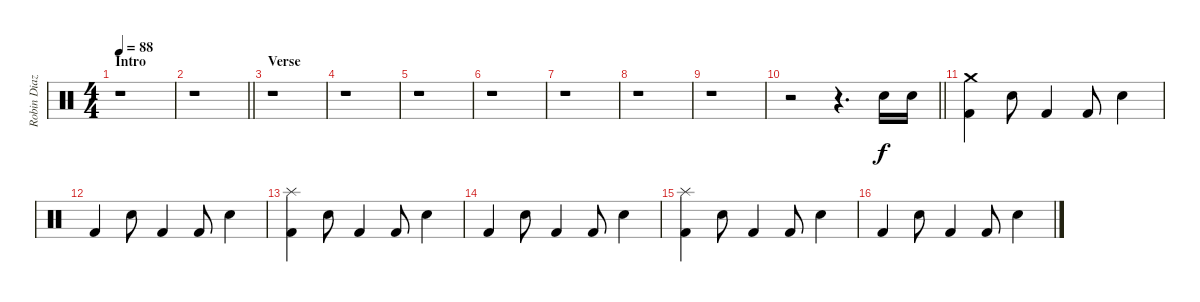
\track ("Robin Diaz (Drums)" "Robin Diaz") {instrument percussion}
\staff {score}
\articulation defaults
\ts (4 4)
\section ("" "Intro")
\tempo 88
\clef neutral
\ks c
r.1{dy f} |
\barLineRight lightlight
r.1 |
\section ("" "Verse")
r.1 |
r.1 |
r.1 |
r.1 |
r.1 |
r.1 |
r.1 |
\barLineRight lightlight
r.2 r.4{d} "Electric Snare (hit)".16 "Electric Snare (hit)".16 |
("Crash medium (hit)" "Kick (hit) 2").4 "Electric Snare (hit)".8 "Kick (hit) 2".4 "Kick (hit) 2".8 "Electric Snare (hit)".4 |
"Kick (hit) 2".4 "Electric Snare (hit)".8 "Kick (hit) 2".4 "Kick (hit) 2".8 "Electric Snare (hit)".4 |
("Splash (hit)" "Kick (hit) 2").4 "Electric Snare (hit)".8 "Kick (hit) 2".4 "Kick (hit) 2".8 "Electric Snare (hit)".4 |
"Kick (hit) 2".4 "Electric Snare (hit)".8 "Kick (hit) 2".4 "Kick (hit) 2".8 "Electric Snare (hit)".4 |
("Splash (hit)" "Kick (hit) 2").4 "Electric Snare (hit)".8 "Kick (hit) 2".4 "Kick (hit) 2".8 "Electric Snare (hit)".4 |
"Kick (hit) 2".4 "Electric Snare (hit)".8 "Kick (hit) 2".4 "Kick (hit) 2".8 "Electric Snare (hit)".4
